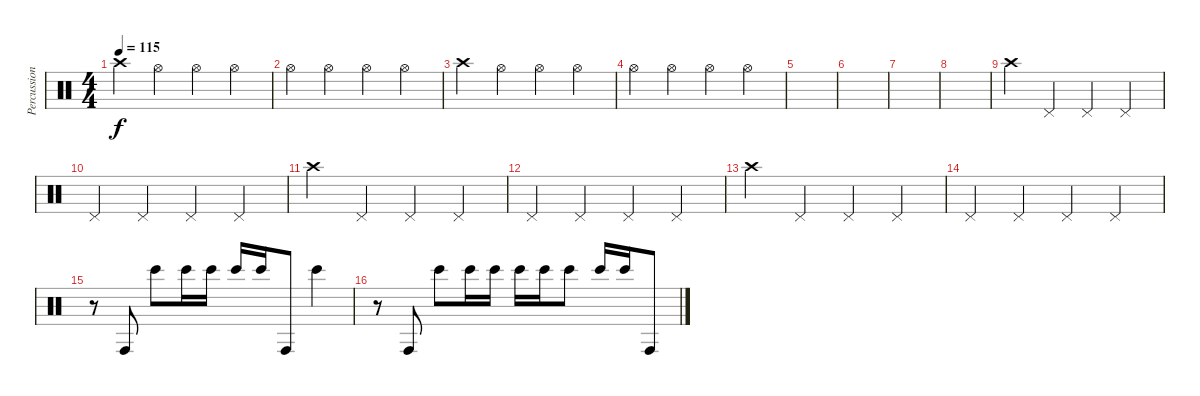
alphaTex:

\track ("Percussion" "Percussion") {instrument percussion}
\staff {score}
\articulation defaults
\ts (4 4)
\tempo 115
\clef neutral
\ks c "Crash high (hit)".4{dy f} "Hi-Hat (open)".4 "Hi-Hat (open)".4 "Hi-Hat (open)".4
|
"Hi-Hat (open)".4 "Hi-Hat (open)".4 "Hi-Hat (open)".4 "Hi-Hat (open)".4 |
"Crash high (hit)".4 "Hi-Hat (open)".4 "Hi-Hat (open)".4 "Hi-Hat (open)".4 |
"Hi-Hat (open)".4 "Hi-Hat (open)".4 "Hi-Hat (open)".4 "Hi-Hat (open)".4 |
|
|
|
|
"Crash high (hit)".4 "Pedal Hi-Hat (hit)".4 "Pedal Hi-Hat (hit)".4 "Pedal Hi-Hat (hit)".4 |
"Pedal Hi-Hat (hit)".4 "Pedal Hi-Hat (hit)".4 "Pedal Hi-Hat (hit)".4 "Pedal Hi-Hat (hit)".4 |
"Crash high (hit)".4 "Pedal Hi-Hat (hit)".4 "Pedal Hi-Hat (hit)".4 "Pedal Hi-Hat (hit)".4 |
"Pedal Hi-Hat (hit)".4 "Pedal Hi-Hat (hit)".4 "Pedal Hi-Hat (hit)".4 "Pedal Hi-Hat (hit)".4 |
"Crash high (hit)".4 "Pedal Hi-Hat (hit)".4 "Pedal Hi-Hat (hit)".4 "Pedal Hi-Hat (hit)".4 |
"Pedal Hi-Hat (hit)".4 "Pedal Hi-Hat (hit)".4 "Pedal Hi-Hat (hit)".4 "Pedal Hi-Hat (hit)".4 |
r.8 "Conga high (hit)".8 "Bongo High (hit)".8 "Bongo High (hit)".16 "Bongo High (hit)".16 "Bongo High (hit)".16 "Bongo High (hit)".16 "Conga high (hit)".8 "Bongo High (hit)".4 |
r.8 "Conga high (hit)".8 "Bongo High (hit)".8 "Bongo High (hit)".16 "Bongo High (hit)".16 "Bongo High (hit)".16 "Bongo High (hit)".16 "Bongo High (hit)".8 "Bongo High (hit)".16 "Bongo High (hit)".16 "Conga high (hit)".8
